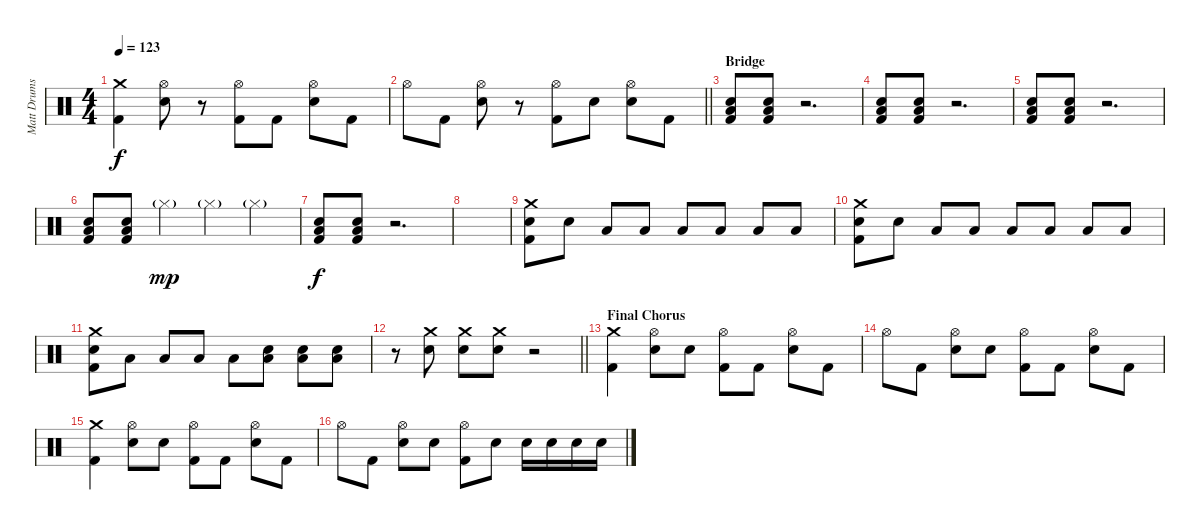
\track ("Matt Drums" "Matt Drums") {instrument percussion}
\staff {score}
\articulation defaults
\ts (4 4)
\tempo 123
\clef neutral
\ks c
("Crash medium (hit)" "Kick (hit) 2").4{dy f} ("Hi-Hat (open)" "Snare (hit) 2").8 r.8 ("Hi-Hat (open)" "Kick (hit) 2").8 "Kick (hit) 2".8 ("Hi-Hat (open)" "Snare (hit) 2").8 "Kick (hit) 2".8 |
\barLineRight lightlight "Hi-Hat (open)".8 "Kick (hit) 2".8
("Hi-Hat (open)" "Snare (hit) 2").8 r.8 ("Hi-Hat (open)" "Kick (hit) 2").8 "Snare (hit) 2".8 ("Hi-Hat (open)" "Snare (hit) 2").8 "Kick (hit) 2".8 |
\section ("" "Bridge")
("Kick (hit) 2" "Low Floor Tom (hit)" "Snare (hit) 2").8 ("Kick (hit) 2" "Low Floor Tom (hit)" "Snare (hit) 2").8 r.2{d} |
("Kick (hit) 2" "Low Floor Tom (hit)" "Snare (hit) 2").8 ("Kick (hit) 2" "Low Floor Tom (hit)" "Snare (hit) 2").8 r.2{d} |
("Kick (hit) 2" "Low Floor Tom (hit)" "Snare (hit) 2").8 ("Kick (hit) 2" "Low Floor Tom (hit)" "Snare (hit) 2").8 r.2{d} |
("Kick (hit) 2" "Low Floor Tom (hit)" "Snare (hit) 2").8 ("Kick (hit) 2" "Low Floor Tom (hit)" "Snare (hit) 2").8 "Hi-Hat (closed)"{g}.4{dy mp} "Hi-Hat (closed)"{g}.4 "Hi-Hat (closed)"{g}.4 |
("Kick (hit) 2" "Low Floor Tom (hit)" "Snare (hit) 2").8{dy f} ("Kick (hit) 2" "Low Floor Tom (hit)" "Snare (hit) 2").8 r.2{d} |
|
("Snare (hit) 2" "Crash medium (hit)" "Kick (hit) 2").8 "Snare (hit) 2".8 "Low Floor Tom (hit)".8 "Low Floor Tom (hit)".8 "Low Floor Tom (hit)".8 "Low Floor Tom (hit)".8 "Low Floor Tom (hit)".8 "Low Floor Tom (hit)".8 |
("Snare (hit) 2" "Crash medium (hit)" "Kick (hit) 2").8 "Snare (hit) 2".8 "Low Floor Tom (hit)".8 "Low Floor Tom (hit)".8 "Low Floor Tom (hit)".8 "Low Floor Tom (hit)".8 "Low Floor Tom (hit)".8 "Low Floor Tom (hit)".8 |
("Snare (hit) 2" "Crash medium (hit)" "Kick (hit) 2").8 "Low Floor Tom (hit)".8 "Low Floor Tom (hit)".8 "Low Floor Tom (hit)".8 "Low Floor Tom (hit)".8 ("Snare (hit) 2" "Low Floor Tom (hit)").8 ("Snare (hit) 2" "Low Floor Tom (hit)").8 ("Snare (hit) 2" "Low Floor Tom (hit)").8 |
\barLineRight lightlight
r.8 ("Crash medium (hit)" "Snare (hit) 2").8 ("Crash medium (hit)" "Snare (hit) 2").8 ("Crash medium (hit)" "Snare (hit) 2").8 r.2 |
\section ("" "Final Chorus")
("Crash medium (hit)" "Kick (hit) 2").4 ("Hi-Hat (open)" "Snare (hit) 2").8 "Snare (hit) 2".8 ("Hi-Hat (open)" "Kick (hit) 2").8 "Kick (hit) 2".8 ("Hi-Hat (open)" "Snare (hit) 2").8 "Kick (hit) 2".8 |
"Hi-Hat (open)".8 "Kick (hit) 2".8 ("Hi-Hat (open)" "Snare (hit) 2").8 "Snare (hit) 2".8 ("Hi-Hat (open)" "Kick (hit) 2").8 "Kick (hit) 2".8 ("Hi-Hat (open)" "Snare (hit) 2").8 "Kick (hit) 2".8 |
("Crash medium (hit)" "Kick (hit) 2").4 ("Hi-Hat (open)" "Snare (hit) 2").8 "Snare (hit) 2".8 ("Hi-Hat (open)" "Kick (hit) 2").8 "Kick (hit) 2".8 ("Hi-Hat (open)" "Snare (hit) 2").8 "Kick (hit) 2".8 |
"Hi-Hat (open)".8 "Kick (hit) 2".8 ("Hi-Hat (open)" "Snare (hit) 2").8 "Snare (hit) 2".8 ("Hi-Hat (open)" "Kick (hit) 2").8 "Snare (hit) 2".8 "Snare (hit) 2".16 "Snare (hit) 2".16 "Snare (hit) 2".16 "Snare (hit) 2".16
